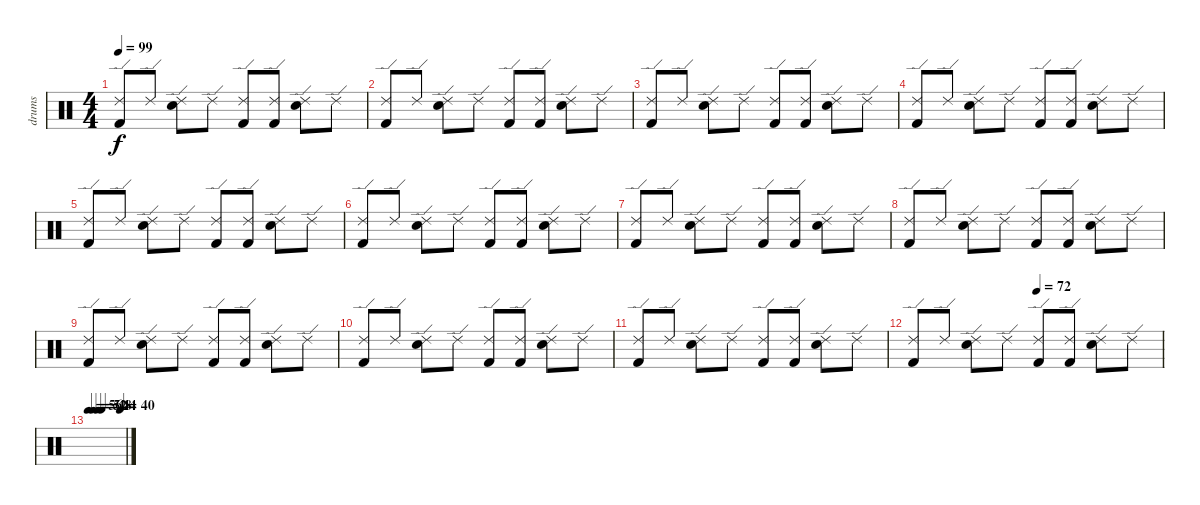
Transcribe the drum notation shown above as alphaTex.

\track ("drums" "drums") {instrument percussion}
\staff {score}
\articulation defaults
\ts (4 4)
\tempo 99
\clef neutral
\ks c
("Ride (edge) 2" "Kick (hit) 2").8{dy f} "Ride (edge) 2".8 ("Ride (edge) 2" "Snare (hit) 2").8 "Ride (edge) 2".8 ("Ride (edge) 2" "Kick (hit) 2").8 ("Ride (edge) 2" "Kick (hit) 2").8 ("Ride (edge) 2" "Snare (hit) 2").8 "Ride (edge) 2".8 |
("Ride (edge) 2" "Kick (hit) 2").8 "Ride (edge) 2".8 ("Ride (edge) 2" "Snare (hit) 2").8 "Ride (edge) 2".8 ("Ride (edge) 2" "Kick (hit) 2").8 ("Ride (edge) 2" "Kick (hit) 2").8 ("Ride (edge) 2" "Snare (hit) 2").8 "Ride (edge) 2".8 |
("Ride (edge) 2" "Kick (hit) 2").8 "Ride (edge) 2".8 ("Ride (edge) 2" "Snare (hit) 2").8 "Ride (edge) 2".8 ("Ride (edge) 2" "Kick (hit) 2").8 ("Ride (edge) 2" "Kick (hit) 2").8 ("Ride (edge) 2" "Snare (hit) 2").8 "Ride (edge) 2".8 |
("Ride (edge) 2" "Kick (hit) 2").8 "Ride (edge) 2".8 ("Ride (edge) 2" "Snare (hit) 2").8 "Ride (edge) 2".8 ("Ride (edge) 2" "Kick (hit) 2").8 ("Ride (edge) 2" "Kick (hit) 2").8 ("Ride (edge) 2" "Snare (hit) 2").8 "Ride (edge) 2".8 |
("Ride (edge) 2" "Kick (hit) 2").8 "Ride (edge) 2".8 ("Ride (edge) 2" "Snare (hit) 2").8 "Ride (edge) 2".8 ("Ride (edge) 2" "Kick (hit) 2").8 ("Ride (edge) 2" "Kick (hit) 2").8 ("Ride (edge) 2" "Snare (hit) 2").8 "Ride (edge) 2".8 |
("Ride (edge) 2" "Kick (hit) 2").8 "Ride (edge) 2".8 ("Ride (edge) 2" "Snare (hit) 2").8 "Ride (edge) 2".8 ("Ride (edge) 2" "Kick (hit) 2").8 ("Ride (edge) 2" "Kick (hit) 2").8 ("Ride (edge) 2" "Snare (hit) 2").8 "Ride (edge) 2".8 |
("Ride (edge) 2" "Kick (hit) 2").8 "Ride (edge) 2".8 ("Ride (edge) 2" "Snare (hit) 2").8 "Ride (edge) 2".8 ("Ride (edge) 2" "Kick (hit) 2").8 ("Ride (edge) 2" "Kick (hit) 2").8 ("Ride (edge) 2" "Snare (hit) 2").8 "Ride (edge) 2".8 |
("Ride (edge) 2" "Kick (hit) 2").8 "Ride (edge) 2".8 ("Ride (edge) 2" "Snare (hit) 2").8 "Ride (edge) 2".8 ("Ride (edge) 2" "Kick (hit) 2").8 ("Ride (edge) 2" "Kick (hit) 2").8 ("Ride (edge) 2" "Snare (hit) 2").8 "Ride (edge) 2".8 |
("Ride (edge) 2" "Kick (hit) 2").8 "Ride (edge) 2".8 ("Ride (edge) 2" "Snare (hit) 2").8 "Ride (edge) 2".8 ("Ride (edge) 2" "Kick (hit) 2").8 ("Ride (edge) 2" "Kick (hit) 2").8 ("Ride (edge) 2" "Snare (hit) 2").8 "Ride (edge) 2".8 |
("Ride (edge) 2" "Kick (hit) 2").8 "Ride (edge) 2".8 ("Ride (edge) 2" "Snare (hit) 2").8 "Ride (edge) 2".8 ("Ride (edge) 2" "Kick (hit) 2").8 ("Ride (edge) 2" "Kick (hit) 2").8 ("Ride (edge) 2" "Snare (hit) 2").8 "Ride (edge) 2".8 |
("Ride (edge) 2" "Kick (hit) 2").8 "Ride (edge) 2".8 ("Ride (edge) 2" "Snare (hit) 2").8 "Ride (edge) 2".8 ("Ride (edge) 2" "Kick (hit) 2").8 ("Ride (edge) 2" "Kick (hit) 2").8 ("Ride (edge) 2" "Snare (hit) 2").8 "Ride (edge) 2".8 |
\tempo (72 0.5)
("Ride (edge) 2" "Kick (hit) 2").8 "Ride (edge) 2".8 ("Ride (edge) 2" "Snare (hit) 2").8 "Ride (edge) 2".8 ("Ride (edge) 2" "Kick (hit) 2").8 ("Ride (edge) 2" "Kick (hit) 2").8 ("Ride (edge) 2" "Snare (hit) 2").8 "Ride (edge) 2".8 |
\tempo 56
\tempo (52 0.125)
\tempo (48 0.25)
\tempo (44 0.375)
\tempo (40 0.875)
